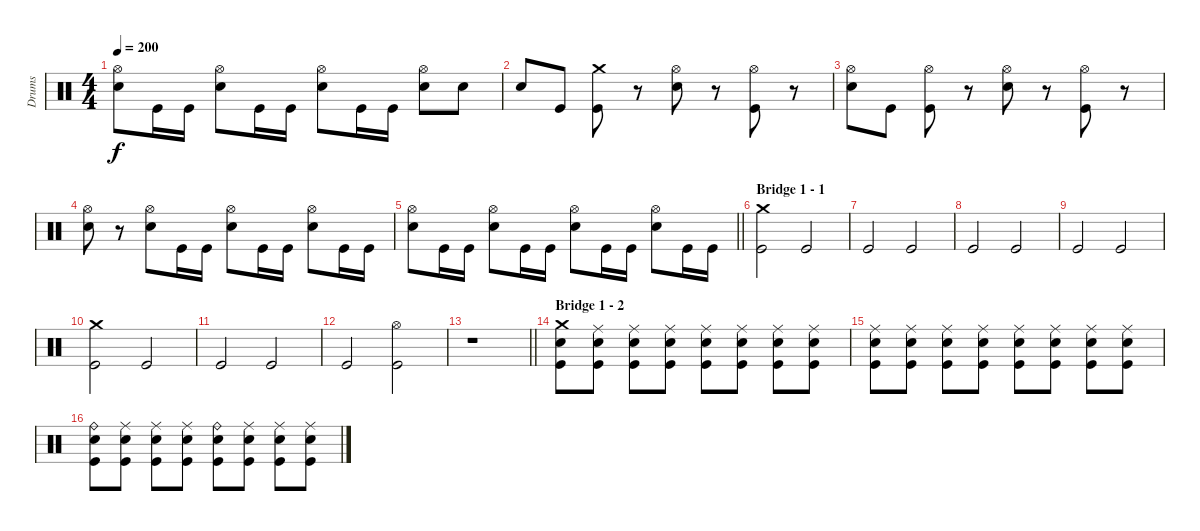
\track ("Drums" "Drums") {instrument percussion}
\staff {score}
\articulation defaults
\ts (4 4)
\tempo 200
\clef neutral
\ks c
("Hi-Hat (open)" "Snare (hit) 2").8{dy f} "Kick (hit)".16 "Kick (hit)".16 ("Hi-Hat (open)" "Snare (hit) 2").8 "Kick (hit)".16 "Kick (hit)".16 ("Hi-Hat (open)" "Snare (hit) 2").8 "Kick (hit)".16 "Kick (hit)".16 ("Hi-Hat (open)" "Snare (hit) 2").8 "Snare (hit) 2".8 |
"Snare (hit) 2".8 "Kick (hit)".8 ("Crash medium (hit)" "Kick (hit)").8 r.8 ("Hi-Hat (open)" "Snare (hit) 2").8 r.8 ("Hi-Hat (open)" "Kick (hit)").8 r.8 |
("Hi-Hat (open)" "Snare (hit) 2").8 "Kick (hit)".8 ("Hi-Hat (open)" "Kick (hit)").8 r.8 ("Hi-Hat (open)" "Snare (hit) 2").8 r.8 ("Hi-Hat (open)" "Kick (hit)").8 r.8 |
("Hi-Hat (open)" "Snare (hit) 2").8 r.8 ("Hi-Hat (open)" "Snare (hit) 2").8 "Kick (hit)".16 "Kick (hit)".16 ("Hi-Hat (open)" "Snare (hit) 2").8 "Kick (hit)".16 "Kick (hit)".16 ("Hi-Hat (open)" "Snare (hit) 2").8 "Kick (hit)".16 "Kick (hit)".16 |
\barLineRight lightlight
("Hi-Hat (open)" "Snare (hit) 2").8 "Kick (hit)".16 "Kick (hit)".16 ("Hi-Hat (open)" "Snare (hit) 2").8 "Kick (hit)".16 "Kick (hit)".16 ("Hi-Hat (open)" "Snare (hit) 2").8 "Kick (hit)".16 "Kick (hit)".16 ("Hi-Hat (open)" "Snare (hit) 2").8 "Kick (hit)".16 "Kick (hit)".16 |
\section ("" "Bridge 1 - 1")
("Crash medium (hit)" "Kick (hit)").2 "Kick (hit)".2 |
"Kick (hit)".2 "Kick (hit)".2 |
"Kick (hit)".2 "Kick (hit)".2 |
"Kick (hit)".2 "Kick (hit)".2 |
("Crash medium (hit)" "Kick (hit)").2 "Kick (hit)".2 |
"Kick (hit)".2 "Kick (hit)".2 |
"Kick (hit)".2 ("Hi-Hat (open)" "Kick (hit)").2 |
\barLineRight lightlight
r.1 |
\section ("" "Bridge 1 - 2")
("Crash medium (hit)" "Snare (hit) 2" "Kick (hit)").8 ("Ride (middle)" "Snare (hit) 2" "Kick (hit)").8 ("Ride (middle)" "Snare (hit) 2" "Kick (hit)").8 ("Ride (middle)" "Snare (hit) 2" "Kick (hit)").8 ("Ride (middle)" "Snare (hit) 2" "Kick (hit)").8 ("Ride (middle)" "Snare (hit) 2" "Kick (hit)").8 ("Ride (middle)" "Snare (hit) 2" "Kick (hit)").8 ("Ride (middle)" "Snare (hit) 2" "Kick (hit)").8 |
("Ride (middle)" "Snare (hit) 2" "Kick (hit)").8 ("Ride (middle)" "Snare (hit) 2" "Kick (hit)").8 ("Ride (middle)" "Snare (hit) 2" "Kick (hit)").8 ("Ride (middle)" "Snare (hit) 2" "Kick (hit)").8 ("Ride (middle)" "Snare (hit) 2" "Kick (hit)").8 ("Ride (middle)" "Snare (hit) 2" "Kick (hit)").8 ("Ride (middle)" "Snare (hit) 2" "Kick (hit)").8 ("Ride (middle)" "Snare (hit) 2" "Kick (hit)").8 |
("Ride (bell)" "Snare (hit) 2" "Kick (hit)").8 ("Ride (middle)" "Snare (hit) 2" "Kick (hit)").8 ("Ride (middle)" "Snare (hit) 2" "Kick (hit)").8 ("Ride (middle)" "Snare (hit) 2" "Kick (hit)").8 ("Ride (bell)" "Snare (hit) 2" "Kick (hit)").8 ("Ride (middle)" "Snare (hit) 2" "Kick (hit)").8 ("Ride (middle)" "Snare (hit) 2" "Kick (hit)").8 ("Ride (middle)" "Snare (hit) 2" "Kick (hit)").8
